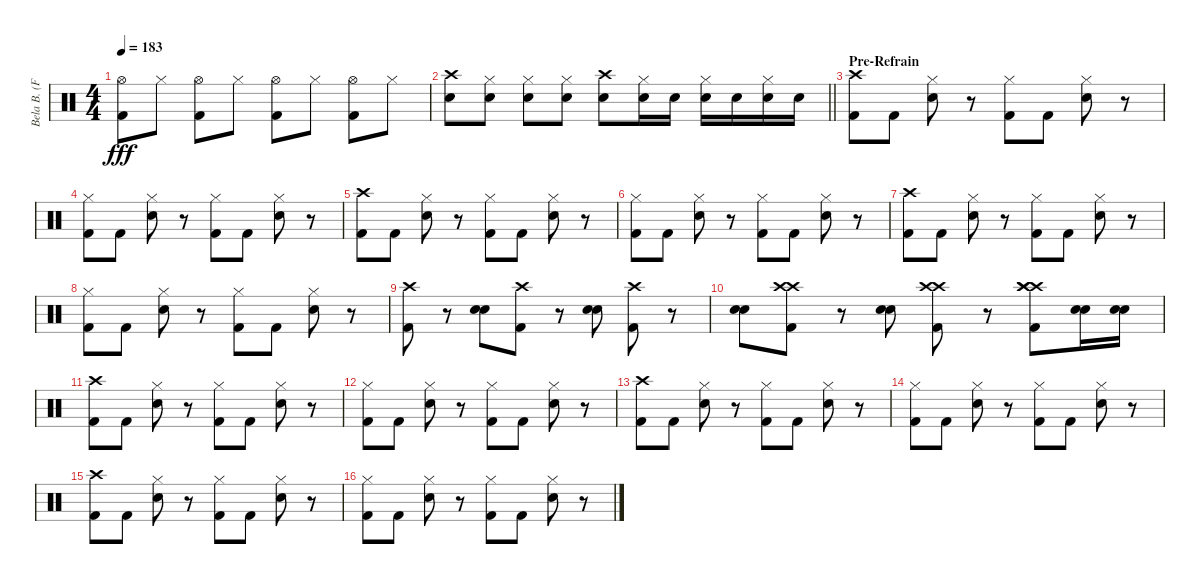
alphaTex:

\track ("Bela B. (Felsenheimer)" "Bela B. (F") {instrument percussion}
\staff {score}
\articulation defaults
\ts (4 4)
\tempo 183
\clef neutral
\ks c
("Kick (hit) 2" "Hi-Hat (open)").8{dy fff} "Hi-Hat (closed)".8 ("Kick (hit) 2" "Hi-Hat (open)").8 "Hi-Hat (closed)".8 ("Kick (hit) 2" "Hi-Hat (open)").8 "Hi-Hat (closed)".8 ("Kick (hit) 2" "Hi-Hat (open)").8 "Hi-Hat (closed)".8 |
\barLineRight lightlight
("Crash high (hit)" "Snare (hit) 2").8 ("Hi-Hat (closed)" "Snare (hit) 2").8 ("Hi-Hat (closed)" "Snare (hit) 2").8 ("Hi-Hat (closed)" "Snare (hit) 2").8 ("Crash high (hit)" "Snare (hit) 2").8 ("Hi-Hat (closed)" "Snare (hit) 2").16 "Snare (hit) 2".16 ("Hi-Hat (closed)" "Snare (hit) 2").16 "Snare (hit) 2".16 ("Hi-Hat (closed)" "Snare (hit) 2").16 "Snare (hit) 2".16 |
\section ("" "Pre-Refrain")
("Crash high (hit)" "Kick (hit) 2").8 "Kick (hit) 2".8 ("Hi-Hat (closed)" "Snare (hit) 2").8 r.8 ("Hi-Hat (closed)" "Kick (hit) 2").8 "Kick (hit) 2".8 ("Hi-Hat (closed)" "Snare (hit) 2").8 r.8 |
("Hi-Hat (closed)" "Kick (hit) 2").8 "Kick (hit) 2".8 ("Hi-Hat (closed)" "Snare (hit) 2").8 r.8 ("Hi-Hat (closed)" "Kick (hit) 2").8 "Kick (hit) 2".8 ("Hi-Hat (closed)" "Snare (hit) 2").8 r.8 |
("Crash high (hit)" "Kick (hit) 2").8 "Kick (hit) 2".8 ("Hi-Hat (closed)" "Snare (hit) 2").8 r.8 ("Hi-Hat (closed)" "Kick (hit) 2").8 "Kick (hit) 2".8 ("Hi-Hat (closed)" "Snare (hit) 2").8 r.8 |
("Hi-Hat (closed)" "Kick (hit) 2").8 "Kick (hit) 2".8 ("Hi-Hat (closed)" "Snare (hit) 2").8 r.8 ("Hi-Hat (closed)" "Kick (hit) 2").8 "Kick (hit) 2".8 ("Hi-Hat (closed)" "Snare (hit) 2").8 r.8 |
("Crash high (hit)" "Kick (hit) 2").8 "Kick (hit) 2".8 ("Hi-Hat (closed)" "Snare (hit) 2").8 r.8 ("Hi-Hat (closed)" "Kick (hit) 2").8 "Kick (hit) 2".8 ("Hi-Hat (closed)" "Snare (hit) 2").8 r.8 |
("Hi-Hat (closed)" "Kick (hit) 2").8 "Kick (hit) 2".8 ("Hi-Hat (closed)" "Snare (hit) 2").8 r.8 ("Hi-Hat (closed)" "Kick (hit) 2").8 "Kick (hit) 2".8 ("Hi-Hat (closed)" "Snare (hit) 2").8 r.8 |
("Crash high (hit)" "Kick (hit) 2").8 r.8 ("Electric Snare (hit)" "Snare (hit) 2").8 ("Crash high (hit)" "Kick (hit) 2").8 r.8 ("Electric Snare (hit)" "Snare (hit) 2").8 ("Crash high (hit)" "Kick (hit) 2").8 r.8 |
("Electric Snare (hit)" "Snare (hit) 2").8 ("Crash high (hit)" "Kick (hit) 2" "Crash high (hit)").8 r.8 ("Electric Snare (hit)" "Snare (hit) 2").8 ("Crash high (hit)" "Kick (hit) 2" "Crash high (hit)").8 r.8 ("Crash high (hit)" "Crash high (hit)" "Kick (hit) 2" "Crash high (hit)").8 ("Snare (hit) 2" "Electric Snare (hit)").16 ("Snare (hit) 2" "Electric Snare (hit)").16 |
("Crash high (hit)" "Kick (hit) 2").8 "Kick (hit) 2".8 ("Hi-Hat (closed)" "Snare (hit) 2").8 r.8 ("Hi-Hat (closed)" "Kick (hit) 2").8 "Kick (hit) 2".8 ("Hi-Hat (closed)" "Snare (hit) 2").8 r.8 |
("Hi-Hat (closed)" "Kick (hit) 2").8 "Kick (hit) 2".8 ("Hi-Hat (closed)" "Snare (hit) 2").8 r.8 ("Hi-Hat (closed)" "Kick (hit) 2").8 "Kick (hit) 2".8 ("Hi-Hat (closed)" "Snare (hit) 2").8 r.8 |
("Crash high (hit)" "Kick (hit) 2").8 "Kick (hit) 2".8 ("Hi-Hat (closed)" "Snare (hit) 2").8 r.8 ("Hi-Hat (closed)" "Kick (hit) 2").8 "Kick (hit) 2".8 ("Hi-Hat (closed)" "Snare (hit) 2").8 r.8 |
("Hi-Hat (closed)" "Kick (hit) 2").8 "Kick (hit) 2".8 ("Hi-Hat (closed)" "Snare (hit) 2").8 r.8 ("Hi-Hat (closed)" "Kick (hit) 2").8 "Kick (hit) 2".8 ("Hi-Hat (closed)" "Snare (hit) 2").8 r.8 |
("Crash high (hit)" "Kick (hit) 2").8 "Kick (hit) 2".8 ("Hi-Hat (closed)" "Snare (hit) 2").8 r.8 ("Hi-Hat (closed)" "Kick (hit) 2").8 "Kick (hit) 2".8 ("Hi-Hat (closed)" "Snare (hit) 2").8 r.8 |
("Hi-Hat (closed)" "Kick (hit) 2").8 "Kick (hit) 2".8 ("Hi-Hat (closed)" "Snare (hit) 2").8 r.8 ("Hi-Hat (closed)" "Kick (hit) 2").8 "Kick (hit) 2".8 ("Hi-Hat (closed)" "Snare (hit) 2").8 r.8
